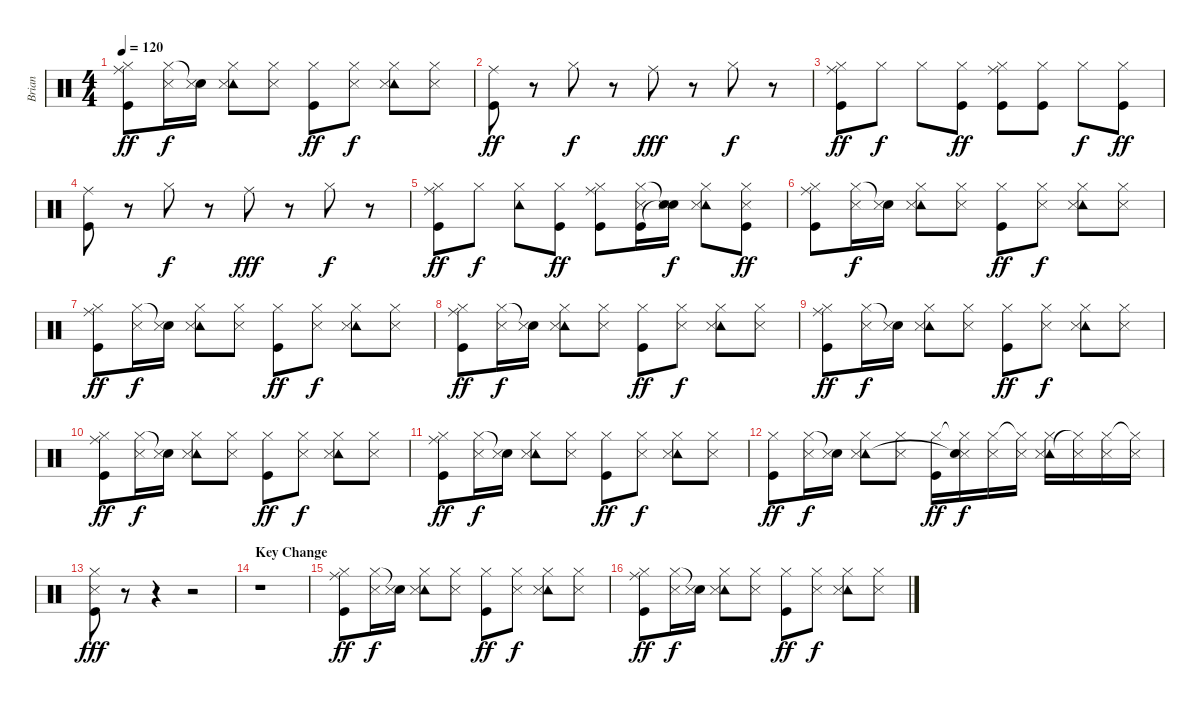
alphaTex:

\track ("Brian" "Brian") {instrument percussion}
\staff {score}
\articulation defaults
\ts (4 4)
\tempo 120
\clef neutral
\ks c
("Ride (middle)" "Hi-Hat (closed)" "Kick (hit)").8{dy ff} ("Hi-Hat (closed)" "Snare (side stick) 3").16{dy f} ("Snare (hit)"{t} "Snare (side stick) 3").16 ("Tambourine (hit)" "Hi-Hat (closed)" "Snare (side stick) 3").8 ("Hi-Hat (closed)" "Snare (side stick) 3").8 ("Hi-Hat (closed)" "Kick (hit)").8{dy ff} ("Hi-Hat (closed)" "Snare (side stick) 3").8{dy f} ("Tambourine (hit)" "Hi-Hat (closed)" "Snare (side stick) 3").8 ("Hi-Hat (closed)" "Snare (side stick) 3").8 |
("Ride (middle)" "Kick (hit)").8{dy ff} r.8 "Hi-Hat (closed)".8{dy f} r.8 "Ride (middle)".8{dy fff} r.8 "Hi-Hat (closed)".8{dy f} r.8 |
("Ride (middle)" "Hi-Hat (closed)" "Kick (hit)").8{dy ff} "Hi-Hat (closed)".8{dy f} "Hi-Hat (closed)".8 ("Hi-Hat (closed)" "Kick (hit)").8{dy ff} ("Ride (middle)" "Hi-Hat (closed)" "Kick (hit)").8 ("Hi-Hat (closed)" "Kick (hit)").8 "Hi-Hat (closed)".8{dy f} ("Hi-Hat (closed)" "Kick (hit)").8{dy ff} |
("Ride (middle)" "Kick (hit)").8 r.8 "Hi-Hat (closed)".8{dy f} r.8 "Ride (middle)".8{dy fff} r.8 "Hi-Hat (closed)".8{dy f} r.8 |
("Ride (middle)" "Hi-Hat (closed)" "Kick (hit)").8{dy ff} "Hi-Hat (closed)".8{dy f} ("Tambourine (hit)" "Hi-Hat (closed)").8 ("Hi-Hat (closed)" "Kick (hit)").8{dy ff} ("Ride (middle)" "Hi-Hat (closed)" "Kick (hit)").8 ("Hi-Hat (closed)" "Snare (side stick) 3" "Kick (hit)").16 ("Snare (hit)"{t} "Snare (side stick) 3" "Snare (hit)"{t}).16{dy f} ("Tambourine (hit)" "Hi-Hat (closed)" "Snare (side stick) 3").8 ("Hi-Hat (closed)" "Snare (side stick) 3" "Kick (hit)").8{dy ff} |
("Ride (middle)" "Hi-Hat (closed)" "Kick (hit)").8 ("Hi-Hat (closed)" "Snare (side stick) 3").16{dy f} ("Snare (hit)"{t} "Snare (side stick) 3").16 ("Tambourine (hit)" "Hi-Hat (closed)" "Snare (side stick) 3").8 ("Hi-Hat (closed)" "Snare (side stick) 3").8 ("Hi-Hat (closed)" "Kick (hit)").8{dy ff} ("Hi-Hat (closed)" "Snare (side stick) 3").8{dy f} ("Tambourine (hit)" "Hi-Hat (closed)" "Snare (side stick) 3").8 ("Hi-Hat (closed)" "Snare (side stick) 3").8 |
("Ride (middle)" "Hi-Hat (closed)" "Kick (hit)").8{dy ff} ("Hi-Hat (closed)" "Snare (side stick) 3").16{dy f} ("Snare (hit)"{t} "Snare (side stick) 3").16 ("Tambourine (hit)" "Hi-Hat (closed)" "Snare (side stick) 3").8 ("Hi-Hat (closed)" "Snare (side stick) 3").8 ("Hi-Hat (closed)" "Kick (hit)").8{dy ff} ("Hi-Hat (closed)" "Snare (side stick) 3").8{dy f} ("Tambourine (hit)" "Hi-Hat (closed)" "Snare (side stick) 3").8 ("Hi-Hat (closed)" "Snare (side stick) 3").8 |
("Ride (middle)" "Hi-Hat (closed)" "Kick (hit)").8{dy ff} ("Hi-Hat (closed)" "Snare (side stick) 3").16{dy f} ("Snare (hit)"{t} "Snare (side stick) 3").16 ("Tambourine (hit)" "Hi-Hat (closed)" "Snare (side stick) 3").8 ("Hi-Hat (closed)" "Snare (side stick) 3").8 ("Hi-Hat (closed)" "Kick (hit)").8{dy ff} ("Hi-Hat (closed)" "Snare (side stick) 3").8{dy f} ("Tambourine (hit)" "Hi-Hat (closed)" "Snare (side stick) 3").8 ("Hi-Hat (closed)" "Snare (side stick) 3").8 |
("Ride (middle)" "Hi-Hat (closed)" "Kick (hit)").8{dy ff} ("Hi-Hat (closed)" "Snare (side stick) 3").16{dy f} ("Snare (hit)"{t} "Snare (side stick) 3").16 ("Tambourine (hit)" "Hi-Hat (closed)" "Snare (side stick) 3").8 ("Hi-Hat (closed)" "Snare (side stick) 3").8 ("Hi-Hat (closed)" "Kick (hit)").8{dy ff} ("Hi-Hat (closed)" "Snare (side stick) 3").8{dy f} ("Tambourine (hit)" "Hi-Hat (closed)" "Snare (side stick) 3").8 ("Hi-Hat (closed)" "Snare (side stick) 3").8 |
("Ride (middle)" "Hi-Hat (closed)" "Kick (hit)").8{dy ff} ("Hi-Hat (closed)" "Snare (side stick) 3").16{dy f} ("Snare (hit)"{t} "Snare (side stick) 3").16 ("Tambourine (hit)" "Hi-Hat (closed)" "Snare (side stick) 3").8 ("Hi-Hat (closed)" "Snare (side stick) 3").8 ("Hi-Hat (closed)" "Kick (hit)").8{dy ff} ("Hi-Hat (closed)" "Snare (side stick) 3").8{dy f} ("Tambourine (hit)" "Hi-Hat (closed)" "Snare (side stick) 3").8 ("Hi-Hat (closed)" "Snare (side stick) 3").8 |
("Ride (middle)" "Hi-Hat (closed)" "Kick (hit)").8{dy ff} ("Hi-Hat (closed)" "Snare (side stick) 3").16{dy f} ("Snare (hit)"{t} "Snare (side stick) 3").16 ("Tambourine (hit)" "Hi-Hat (closed)" "Snare (side stick) 3").8 ("Hi-Hat (closed)" "Snare (side stick) 3").8 ("Hi-Hat (closed)" "Kick (hit)").8{dy ff} ("Hi-Hat (closed)" "Snare (side stick) 3").8{dy f} ("Tambourine (hit)" "Hi-Hat (closed)" "Snare (side stick) 3").8 ("Hi-Hat (closed)" "Snare (side stick) 3").8 |
("Hi-Hat (closed)" "Kick (hit)").8{dy ff} ("Hi-Hat (closed)" "Snare (side stick) 3").16{dy f} ("Snare (hit)"{t} "Snare (side stick) 3").16 ("Tambourine (hit)" "Hi-Hat (closed)" "Snare (side stick) 3").8 ("Hi-Hat (closed)" "Snare (side stick) 3").8 ("Hi-Hat (closed)" "Kick (hit)").16{dy ff} ("Hi-Hat (closed)"{t} "Snare (side stick) 3" "Snare (hit)"{t}).16{dy f} ("Hi-Hat (closed)" "Snare (side stick) 3").16 ("Hi-Hat (closed)"{t} "Snare (side stick) 3").16 ("Tambourine (hit)" "Hi-Hat (closed)" "Snare (side stick) 3").16 ("Hi-Hat (closed)"{t} "Snare (side stick) 3").16 ("Hi-Hat (closed)" "Snare (side stick) 3").16 ("Hi-Hat (closed)"{t} "Snare (side stick) 3").16 |
("Hi-Hat (closed)" "Snare (side stick) 3" "Kick (hit)").8{dy fff} r.8 r.4 r.2 |
\section ("" "Key Change")
r.1 |
("Ride (middle)" "Hi-Hat (closed)" "Kick (hit)").8{dy ff} ("Hi-Hat (closed)" "Snare (side stick) 3").16{dy f} ("Snare (hit)"{t} "Snare (side stick) 3").16 ("Tambourine (hit)" "Hi-Hat (closed)" "Snare (side stick) 3").8 ("Hi-Hat (closed)" "Snare (side stick) 3").8 ("Hi-Hat (closed)" "Kick (hit)").8{dy ff} ("Hi-Hat (closed)" "Snare (side stick) 3").8{dy f} ("Tambourine (hit)" "Hi-Hat (closed)" "Snare (side stick) 3").8 ("Hi-Hat (closed)" "Snare (side stick) 3").8 |
("Ride (middle)" "Hi-Hat (closed)" "Kick (hit)").8{dy ff} ("Hi-Hat (closed)" "Snare (side stick) 3").16{dy f} ("Snare (hit)"{t} "Snare (side stick) 3").16 ("Tambourine (hit)" "Hi-Hat (closed)" "Snare (side stick) 3").8 ("Hi-Hat (closed)" "Snare (side stick) 3").8 ("Hi-Hat (closed)" "Kick (hit)").8{dy ff} ("Hi-Hat (closed)" "Snare (side stick) 3").8{dy f} ("Tambourine (hit)" "Hi-Hat (closed)" "Snare (side stick) 3").8 ("Hi-Hat (closed)" "Snare (side stick) 3").8
